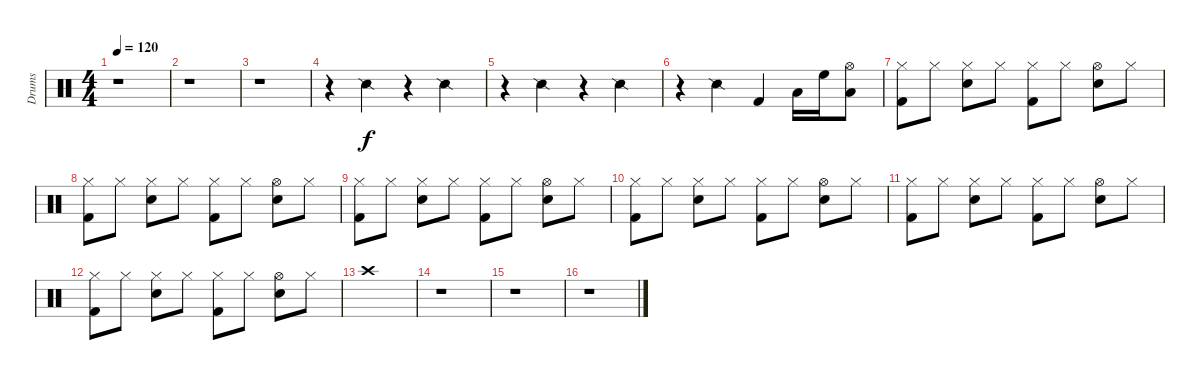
\track ("Drums" "Drums") {instrument percussion}
\staff {score}
\articulation defaults
\ts (4 4)
\tempo 120
\clef neutral
\ks c
r.1{dy f} |
r.1 |
r.1 |
r.4 "Snare (side stick) 2".4 r.4 "Snare (side stick) 2".4 |
r.4 "Snare (side stick) 2".4 r.4 "Snare (side stick) 2".4 |
r.4 "Snare (side stick) 2".4 "Kick (hit) 2".4 "Low Floor Tom (hit)".16 "High Floor Tom (hit)".16 ("Low Tom (hit)" "Hi-Hat (open)").8 |
("Kick (hit) 2" "Hi-Hat (closed)").8 "Hi-Hat (closed)".8 ("Snare (hit) 2" "Hi-Hat (closed)").8 "Hi-Hat (closed)".8 ("Kick (hit) 2" "Hi-Hat (closed)").8 "Hi-Hat (closed)".8 ("Snare (hit) 2" "Hi-Hat (open)").8 "Hi-Hat (closed)".8 |
("Kick (hit) 2" "Hi-Hat (closed)").8 "Hi-Hat (closed)".8 ("Snare (hit) 2" "Hi-Hat (closed)").8 "Hi-Hat (closed)".8 ("Kick (hit) 2" "Hi-Hat (closed)").8 "Hi-Hat (closed)".8 ("Snare (hit) 2" "Hi-Hat (open)").8 "Hi-Hat (closed)".8 |
("Kick (hit) 2" "Hi-Hat (closed)").8 "Hi-Hat (closed)".8 ("Snare (hit) 2" "Hi-Hat (closed)").8 "Hi-Hat (closed)".8 ("Kick (hit) 2" "Hi-Hat (closed)").8 "Hi-Hat (closed)".8 ("Snare (hit) 2" "Hi-Hat (open)").8 "Hi-Hat (closed)".8 |
("Kick (hit) 2" "Hi-Hat (closed)").8 "Hi-Hat (closed)".8 ("Snare (hit) 2" "Hi-Hat (closed)").8 "Hi-Hat (closed)".8 ("Kick (hit) 2" "Hi-Hat (closed)").8 "Hi-Hat (closed)".8 ("Snare (hit) 2" "Hi-Hat (open)").8 "Hi-Hat (closed)".8 |
("Kick (hit) 2" "Hi-Hat (closed)").8 "Hi-Hat (closed)".8 ("Snare (hit) 2" "Hi-Hat (closed)").8 "Hi-Hat (closed)".8 ("Kick (hit) 2" "Hi-Hat (closed)").8 "Hi-Hat (closed)".8 ("Snare (hit) 2" "Hi-Hat (open)").8 "Hi-Hat (closed)".8 |
("Kick (hit) 2" "Hi-Hat (closed)").8 "Hi-Hat (closed)".8 ("Snare (hit) 2" "Hi-Hat (closed)").8 "Hi-Hat (closed)".8 ("Kick (hit) 2" "Hi-Hat (closed)").8 "Hi-Hat (closed)".8 ("Snare (hit) 2" "Hi-Hat (open)").8 "Hi-Hat (closed)".8 |
"Crash high (hit)".1 |
r.1 |
r.1 |
r.1
